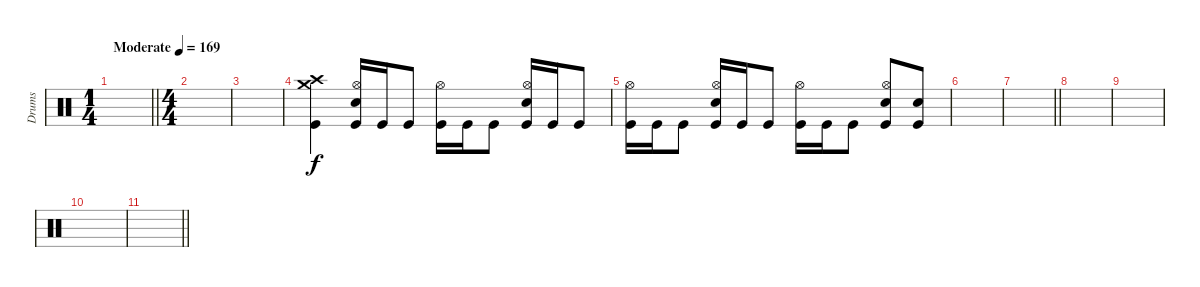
\track ("Drums" "Drums") {instrument percussion}
\staff
\articulation defaults
\ts (1 4)
\tempo (169 "Moderate")
\clef neutral
\barLineRight lightlight
\ks c
|
\ts (4 4)
|
|
("Crash high (hit)" "Crash medium (hit)" "Kick (hit)").4 ("Hi-Hat (open)" "Electric Snare (hit)" "Kick (hit)").16 "Kick (hit)".16 "Kick (hit)".8 ("Hi-Hat (open)" "Kick (hit)").16 "Kick (hit)".16 "Kick (hit)".8 ("Hi-Hat (open)" "Electric Snare (hit)" "Kick (hit)").16 "Kick (hit)".16 "Kick (hit)".8 |
("Hi-Hat (open)" "Kick (hit)").16 "Kick (hit)".16 "Kick (hit)".8 ("Hi-Hat (open)" "Electric Snare (hit)" "Kick (hit)").16 "Kick (hit)".16 "Kick (hit)".8 ("Hi-Hat (open)" "Kick (hit)").16 "Kick (hit)".16 "Kick (hit)".8 ("Hi-Hat (open)" "Electric Snare (hit)" "Kick (hit)").8 ("Electric Snare (hit)" "Kick (hit)").8 |
|
\barLineRight lightlight
|
|
|
|
\barLineRight lightlight
